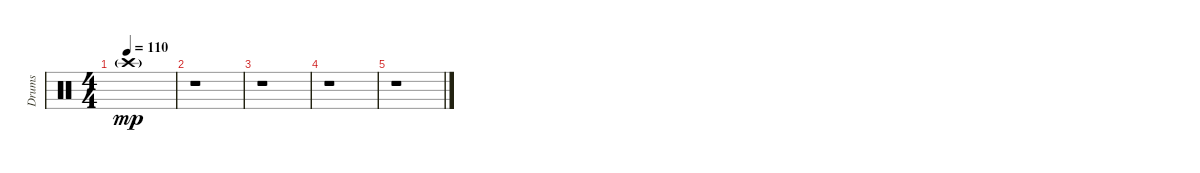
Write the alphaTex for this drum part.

\track ("Drums" "Drums") {instrument percussion}
\staff {score}
\articulation defaults
\ts (4 4)
\tempo 110
\clef neutral
\ks c "Crash high (hit)"{g}.1{dy mp}
|
r.1 |
r.1 |
r.1 |
r.1
